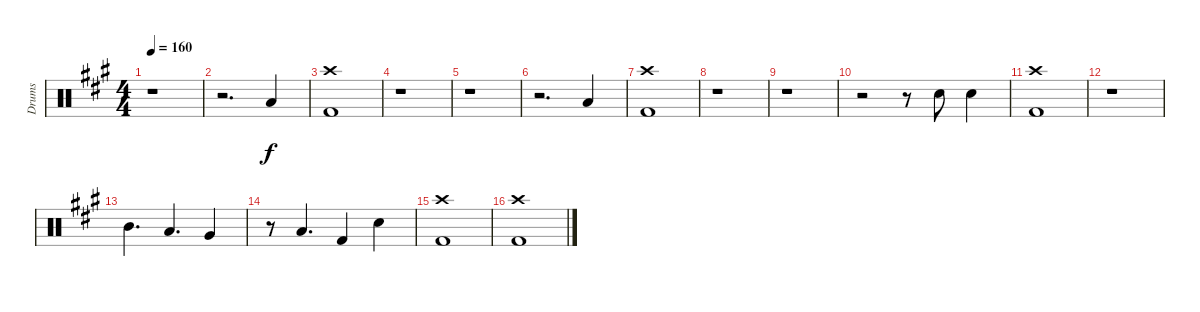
\track ("Drums" "Drums") {instrument percussion}
\staff {score}
\articulation defaults
\ts (4 4)
\tempo 160
\clef neutral
\ks a
r.1{dy f} |
r.2{d} "Low Tom (hit)".4 |
("Crash high (hit)" "Kick (hit) 2").1 |
r.1 |
r.1 |
r.2{d} "Low Tom (hit)".4 |
("Crash high (hit)" "Kick (hit) 2").1 |
r.1 |
r.1 |
r.2 r.8 "Electric Snare (hit)".8 "Electric Snare (hit)".4 |
("Crash high (hit)" "Kick (hit) 2").1 |
r.1 |
"Mid Tom (hit)".4{d} "Low Tom (hit)".4{d} "Very Low Tom (hit)".4 |
r.8 "Low Floor Tom (hit)".4{d} "Kick (hit) 2".4 "Electric Snare (hit)".4 |
("Crash high (hit)" "Kick (hit) 2").1 |
("Crash high (hit)" "Kick (hit) 2").1
